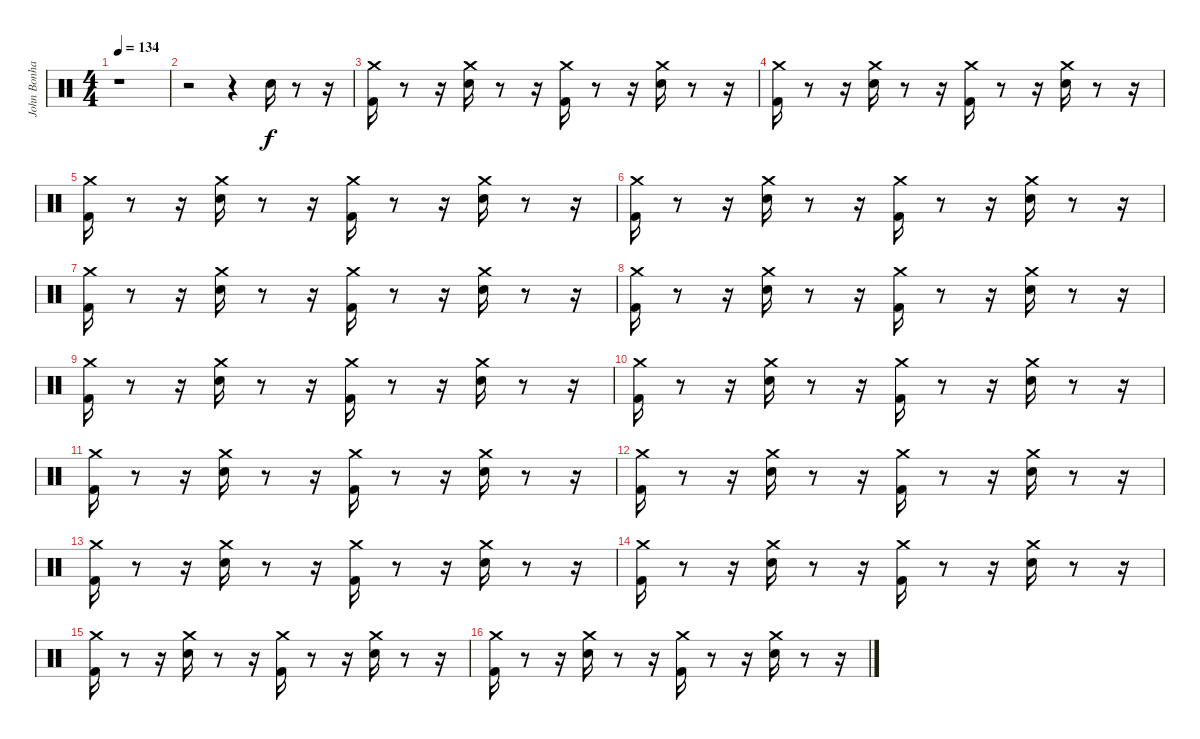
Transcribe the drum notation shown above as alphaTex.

\track ("John Bonham - Drums" "John Bonha") {instrument percussion}
\staff {score}
\articulation defaults
\ts (4 4)
\tempo 134
\clef neutral
\ks c
r.1{dy f} |
r.2 r.4 "Electric Snare (hit)".16 r.8 r.16 |
("Kick (hit) 2" "Crash medium (hit)").16 r.8 r.16 ("Snare (hit) 2" "Crash medium (hit)").16 r.8 r.16 ("Kick (hit) 2" "Crash medium (hit)").16 r.8 r.16 ("Snare (hit) 2" "Crash medium (hit)").16 r.8 r.16 |
("Kick (hit) 2" "Crash medium (hit)").16 r.8 r.16 ("Snare (hit) 2" "Crash medium (hit)").16 r.8 r.16 ("Kick (hit) 2" "Crash medium (hit)").16 r.8 r.16 ("Snare (hit) 2" "Crash medium (hit)").16 r.8 r.16 |
("Kick (hit) 2" "Crash medium (hit)").16 r.8 r.16 ("Snare (hit) 2" "Crash medium (hit)").16 r.8 r.16 ("Kick (hit) 2" "Crash medium (hit)").16 r.8 r.16 ("Snare (hit) 2" "Crash medium (hit)").16 r.8 r.16 |
("Kick (hit) 2" "Crash medium (hit)").16 r.8 r.16 ("Snare (hit) 2" "Crash medium (hit)").16 r.8 r.16 ("Kick (hit) 2" "Crash medium (hit)").16 r.8 r.16 ("Snare (hit) 2" "Crash medium (hit)").16 r.8 r.16 |
("Kick (hit) 2" "Crash medium (hit)").16 r.8 r.16 ("Snare (hit) 2" "Crash medium (hit)").16 r.8 r.16 ("Kick (hit) 2" "Crash medium (hit)").16 r.8 r.16 ("Snare (hit) 2" "Crash medium (hit)").16 r.8 r.16 |
("Kick (hit) 2" "Crash medium (hit)").16 r.8 r.16 ("Snare (hit) 2" "Crash medium (hit)").16 r.8 r.16 ("Kick (hit) 2" "Crash medium (hit)").16 r.8 r.16 ("Snare (hit) 2" "Crash medium (hit)").16 r.8 r.16 |
("Kick (hit) 2" "Crash medium (hit)").16 r.8 r.16 ("Snare (hit) 2" "Crash medium (hit)").16 r.8 r.16 ("Kick (hit) 2" "Crash medium (hit)").16 r.8 r.16 ("Snare (hit) 2" "Crash medium (hit)").16 r.8 r.16 |
("Kick (hit) 2" "Crash medium (hit)").16 r.8 r.16 ("Snare (hit) 2" "Crash medium (hit)").16 r.8 r.16 ("Kick (hit) 2" "Crash medium (hit)").16 r.8 r.16 ("Snare (hit) 2" "Crash medium (hit)").16 r.8 r.16 |
("Kick (hit) 2" "Crash medium (hit)").16 r.8 r.16 ("Snare (hit) 2" "Crash medium (hit)").16 r.8 r.16 ("Kick (hit) 2" "Crash medium (hit)").16 r.8 r.16 ("Snare (hit) 2" "Crash medium (hit)").16 r.8 r.16 |
("Kick (hit) 2" "Crash medium (hit)").16 r.8 r.16 ("Snare (hit) 2" "Crash medium (hit)").16 r.8 r.16 ("Kick (hit) 2" "Crash medium (hit)").16 r.8 r.16 ("Snare (hit) 2" "Crash medium (hit)").16 r.8 r.16 |
("Kick (hit) 2" "Crash medium (hit)").16 r.8 r.16 ("Snare (hit) 2" "Crash medium (hit)").16 r.8 r.16 ("Kick (hit) 2" "Crash medium (hit)").16 r.8 r.16 ("Snare (hit) 2" "Crash medium (hit)").16 r.8 r.16 |
("Kick (hit) 2" "Crash medium (hit)").16 r.8 r.16 ("Snare (hit) 2" "Crash medium (hit)").16 r.8 r.16 ("Kick (hit) 2" "Crash medium (hit)").16 r.8 r.16 ("Snare (hit) 2" "Crash medium (hit)").16 r.8 r.16 |
("Kick (hit) 2" "Crash medium (hit)").16 r.8 r.16 ("Snare (hit) 2" "Crash medium (hit)").16 r.8 r.16 ("Kick (hit) 2" "Crash medium (hit)").16 r.8 r.16 ("Snare (hit) 2" "Crash medium (hit)").16 r.8 r.16 |
("Kick (hit) 2" "Crash medium (hit)").16 r.8 r.16 ("Snare (hit) 2" "Crash medium (hit)").16 r.8 r.16 ("Kick (hit) 2" "Crash medium (hit)").16 r.8 r.16 ("Snare (hit) 2" "Crash medium (hit)").16 r.8 r.16
